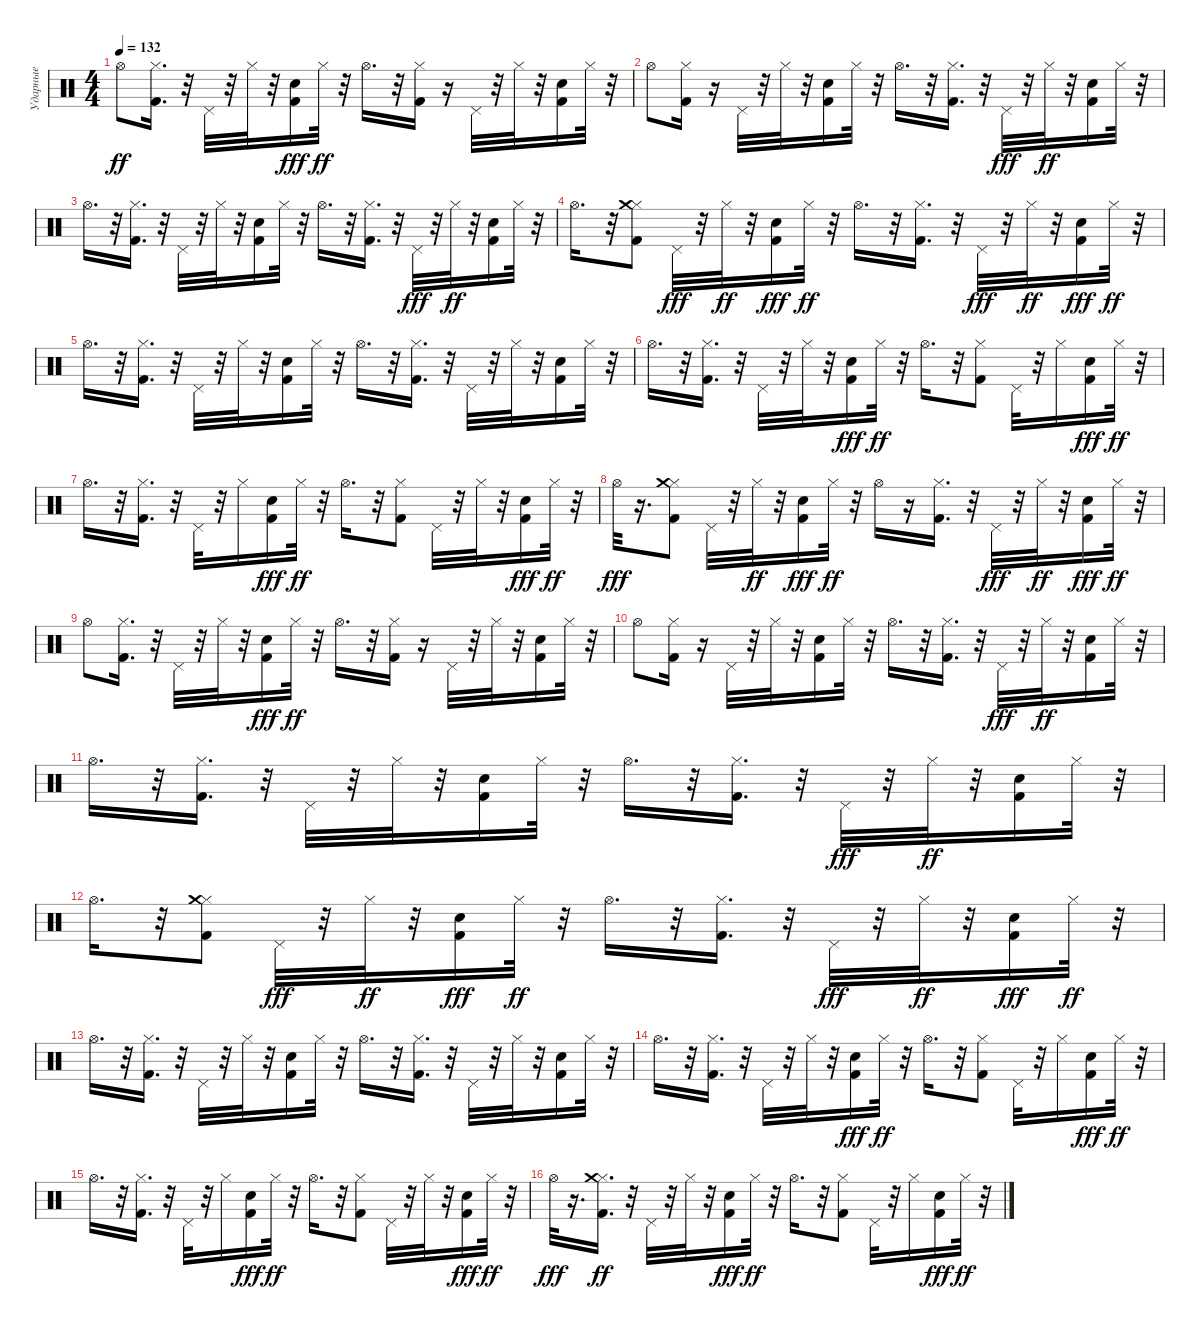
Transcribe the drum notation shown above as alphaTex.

\track ("Ударные" "Ударные") {instrument percussion}
\staff {score}
\articulation defaults
\ts (4 4)
\tempo 132
\clef neutral
\ks c "Hi-Hat (open)".8{dy ff}
("Kick (hit) 2" "Hi-Hat (closed)").16{d} r.32 "Pedal Hi-Hat (hit)".32 r.32 "Hi-Hat (closed)".32 r.32 ("Kick (hit) 2" "Snare (hit) 2").16{dy fff} "Hi-Hat (closed)".32{dy ff} r.32 "Hi-Hat (open)".16{d} r.32 ("Kick (hit) 2" "Hi-Hat (closed)").16 r.16 "Pedal Hi-Hat (hit)".32 r.32 "Hi-Hat (closed)".32 r.32 ("Kick (hit) 2" "Snare (hit) 2").16 "Hi-Hat (closed)".32 r.32 |
"Hi-Hat (open)".8 ("Kick (hit) 2" "Hi-Hat (closed)").16 r.16 "Pedal Hi-Hat (hit)".32 r.32 "Hi-Hat (closed)".32 r.32 ("Kick (hit) 2" "Snare (hit) 2").16 "Hi-Hat (closed)".32 r.32 "Hi-Hat (open)".16{d} r.32 ("Kick (hit) 2" "Hi-Hat (closed)").16{d} r.32 "Pedal Hi-Hat (hit)".32{dy fff} r.32 "Hi-Hat (closed)".32{dy ff} r.32 ("Kick (hit) 2" "Snare (hit) 2").16 "Hi-Hat (closed)".32 r.32 |
"Hi-Hat (open)".16{d} r.32 ("Kick (hit) 2" "Hi-Hat (closed)").16{d} r.32 "Pedal Hi-Hat (hit)".32 r.32 "Hi-Hat (closed)".32 r.32 ("Kick (hit) 2" "Snare (hit) 2").16 "Hi-Hat (closed)".32 r.32 "Hi-Hat (open)".16{d} r.32 ("Kick (hit) 2" "Hi-Hat (closed)").16{d} r.32 "Pedal Hi-Hat (hit)".32{dy fff} r.32 "Hi-Hat (closed)".32{dy ff} r.32 ("Kick (hit) 2" "Snare (hit) 2").16 "Hi-Hat (closed)".32 r.32 |
"Hi-Hat (open)".16{d} r.32 ("Kick (hit) 2" "Hi-Hat (closed)" "Crash medium (hit)").8 "Pedal Hi-Hat (hit)".32{dy fff} r.32 "Hi-Hat (closed)".32{dy ff} r.32 ("Kick (hit) 2" "Snare (hit) 2").16{dy fff} "Hi-Hat (closed)".32{dy ff} r.32 "Hi-Hat (open)".16{d} r.32 ("Kick (hit) 2" "Hi-Hat (closed)").16{d} r.32 "Pedal Hi-Hat (hit)".32{dy fff} r.32 "Hi-Hat (closed)".32{dy ff} r.32 ("Kick (hit) 2" "Snare (hit) 2").16{dy fff} "Hi-Hat (closed)".32{dy ff} r.32 |
"Hi-Hat (open)".16{d} r.32 ("Kick (hit) 2" "Hi-Hat (closed)").16{d} r.32 "Pedal Hi-Hat (hit)".32 r.32 "Hi-Hat (closed)".32 r.32 ("Kick (hit) 2" "Snare (hit) 2").16 "Hi-Hat (closed)".32 r.32 "Hi-Hat (open)".16{d} r.32 ("Kick (hit) 2" "Hi-Hat (closed)").16{d} r.32 "Pedal Hi-Hat (hit)".32 r.32 "Hi-Hat (closed)".32 r.32 ("Kick (hit) 2" "Snare (hit) 2").16 "Hi-Hat (closed)".32 r.32 |
"Hi-Hat (open)".16{d} r.32 ("Kick (hit) 2" "Hi-Hat (closed)").16{d} r.32 "Pedal Hi-Hat (hit)".32 r.32 "Hi-Hat (closed)".32 r.32 ("Kick (hit) 2" "Snare (hit) 2").16{dy fff} "Hi-Hat (closed)".32{dy ff} r.32 "Hi-Hat (open)".16{d} r.32 ("Kick (hit) 2" "Hi-Hat (closed)").8 "Pedal Hi-Hat (hit)".32 r.32 "Hi-Hat (closed)".16 ("Kick (hit) 2" "Snare (hit) 2").16{dy fff} "Hi-Hat (closed)".32{dy ff} r.32 |
"Hi-Hat (open)".16{d} r.32 ("Kick (hit) 2" "Hi-Hat (closed)").16{d} r.32 "Pedal Hi-Hat (hit)".32 r.32 "Hi-Hat (closed)".16 ("Kick (hit) 2" "Snare (hit) 2").16{dy fff} "Hi-Hat (closed)".32{dy ff} r.32 "Hi-Hat (open)".16{d} r.32 ("Kick (hit) 2" "Hi-Hat (closed)").8 "Pedal Hi-Hat (hit)".32 r.32 "Hi-Hat (closed)".32 r.32 ("Kick (hit) 2" "Snare (hit) 2").16{dy fff} "Hi-Hat (closed)".32{dy ff} r.32 |
"Hi-Hat (open)".32{dy fff} r.16{d} ("Kick (hit) 2" "Hi-Hat (closed)" "Crash medium (hit)").8 "Pedal Hi-Hat (hit)".32 r.32 "Hi-Hat (closed)".32{dy ff} r.32 ("Kick (hit) 2" "Snare (hit) 2").16{dy fff} "Hi-Hat (closed)".32{dy ff} r.32 "Hi-Hat (open)".16 r.16 ("Kick (hit) 2" "Hi-Hat (closed)").16{d} r.32 "Pedal Hi-Hat (hit)".32{dy fff} r.32 "Hi-Hat (closed)".32{dy ff} r.32 ("Kick (hit) 2" "Snare (hit) 2").16{dy fff} "Hi-Hat (closed)".32{dy ff} r.32 |
"Hi-Hat (open)".8 ("Kick (hit) 2" "Hi-Hat (closed)").16{d} r.32 "Pedal Hi-Hat (hit)".32 r.32 "Hi-Hat (closed)".32 r.32 ("Kick (hit) 2" "Snare (hit) 2").16{dy fff} "Hi-Hat (closed)".32{dy ff} r.32 "Hi-Hat (open)".16{d} r.32 ("Kick (hit) 2" "Hi-Hat (closed)").16 r.16 "Pedal Hi-Hat (hit)".32 r.32 "Hi-Hat (closed)".32 r.32 ("Kick (hit) 2" "Snare (hit) 2").16 "Hi-Hat (closed)".32 r.32 |
"Hi-Hat (open)".8 ("Kick (hit) 2" "Hi-Hat (closed)").16 r.16 "Pedal Hi-Hat (hit)".32 r.32 "Hi-Hat (closed)".32 r.32 ("Kick (hit) 2" "Snare (hit) 2").16 "Hi-Hat (closed)".32 r.32 "Hi-Hat (open)".16{d} r.32 ("Kick (hit) 2" "Hi-Hat (closed)").16{d} r.32 "Pedal Hi-Hat (hit)".32{dy fff} r.32 "Hi-Hat (closed)".32{dy ff} r.32 ("Kick (hit) 2" "Snare (hit) 2").16 "Hi-Hat (closed)".32 r.32 |
"Hi-Hat (open)".16{d} r.32 ("Kick (hit) 2" "Hi-Hat (closed)").16{d} r.32 "Pedal Hi-Hat (hit)".32 r.32 "Hi-Hat (closed)".32 r.32 ("Kick (hit) 2" "Snare (hit) 2").16 "Hi-Hat (closed)".32 r.32 "Hi-Hat (open)".16{d} r.32 ("Kick (hit) 2" "Hi-Hat (closed)").16{d} r.32 "Pedal Hi-Hat (hit)".32{dy fff} r.32 "Hi-Hat (closed)".32{dy ff} r.32 ("Kick (hit) 2" "Snare (hit) 2").16 "Hi-Hat (closed)".32 r.32 |
"Hi-Hat (open)".16{d} r.32 ("Kick (hit) 2" "Hi-Hat (closed)" "Crash medium (hit)").8 "Pedal Hi-Hat (hit)".32{dy fff} r.32 "Hi-Hat (closed)".32{dy ff} r.32 ("Kick (hit) 2" "Snare (hit) 2").16{dy fff} "Hi-Hat (closed)".32{dy ff} r.32 "Hi-Hat (open)".16{d} r.32 ("Kick (hit) 2" "Hi-Hat (closed)").16{d} r.32 "Pedal Hi-Hat (hit)".32{dy fff} r.32 "Hi-Hat (closed)".32{dy ff} r.32 ("Kick (hit) 2" "Snare (hit) 2").16{dy fff} "Hi-Hat (closed)".32{dy ff} r.32 |
"Hi-Hat (open)".16{d} r.32 ("Kick (hit) 2" "Hi-Hat (closed)").16{d} r.32 "Pedal Hi-Hat (hit)".32 r.32 "Hi-Hat (closed)".32 r.32 ("Kick (hit) 2" "Snare (hit) 2").16 "Hi-Hat (closed)".32 r.32 "Hi-Hat (open)".16{d} r.32 ("Kick (hit) 2" "Hi-Hat (closed)").16{d} r.32 "Pedal Hi-Hat (hit)".32 r.32 "Hi-Hat (closed)".32 r.32 ("Kick (hit) 2" "Snare (hit) 2").16 "Hi-Hat (closed)".32 r.32 |
"Hi-Hat (open)".16{d} r.32 ("Kick (hit) 2" "Hi-Hat (closed)").16{d} r.32 "Pedal Hi-Hat (hit)".32 r.32 "Hi-Hat (closed)".32 r.32 ("Kick (hit) 2" "Snare (hit) 2").16{dy fff} "Hi-Hat (closed)".32{dy ff} r.32 "Hi-Hat (open)".16{d} r.32 ("Kick (hit) 2" "Hi-Hat (closed)").8 "Pedal Hi-Hat (hit)".32 r.32 "Hi-Hat (closed)".16 ("Kick (hit) 2" "Snare (hit) 2").16{dy fff} "Hi-Hat (closed)".32{dy ff} r.32 |
"Hi-Hat (open)".16{d} r.32 ("Kick (hit) 2" "Hi-Hat (closed)").16{d} r.32 "Pedal Hi-Hat (hit)".32 r.32 "Hi-Hat (closed)".16 ("Kick (hit) 2" "Snare (hit) 2").16{dy fff} "Hi-Hat (closed)".32{dy ff} r.32 "Hi-Hat (open)".16{d} r.32 ("Kick (hit) 2" "Hi-Hat (closed)").8 "Pedal Hi-Hat (hit)".32 r.32 "Hi-Hat (closed)".32 r.32 ("Kick (hit) 2" "Snare (hit) 2").16{dy fff} "Hi-Hat (closed)".32{dy ff} r.32 |
"Hi-Hat (open)".32{dy fff} r.16{d} ("Kick (hit) 2" "Hi-Hat (closed)" "Crash medium (hit)").16{d dy ff} r.32 "Pedal Hi-Hat (hit)".32 r.32 "Hi-Hat (closed)".32 r.32 ("Kick (hit) 2" "Snare (hit) 2").16{dy fff} "Hi-Hat (closed)".32{dy ff} r.32 "Hi-Hat (open)".16{d} r.32 ("Kick (hit) 2" "Hi-Hat (closed)").8 "Pedal Hi-Hat (hit)".32 r.32 "Hi-Hat (closed)".16 ("Kick (hit) 2" "Snare (hit) 2").16{dy fff} "Hi-Hat (closed)".32{dy ff} r.32
